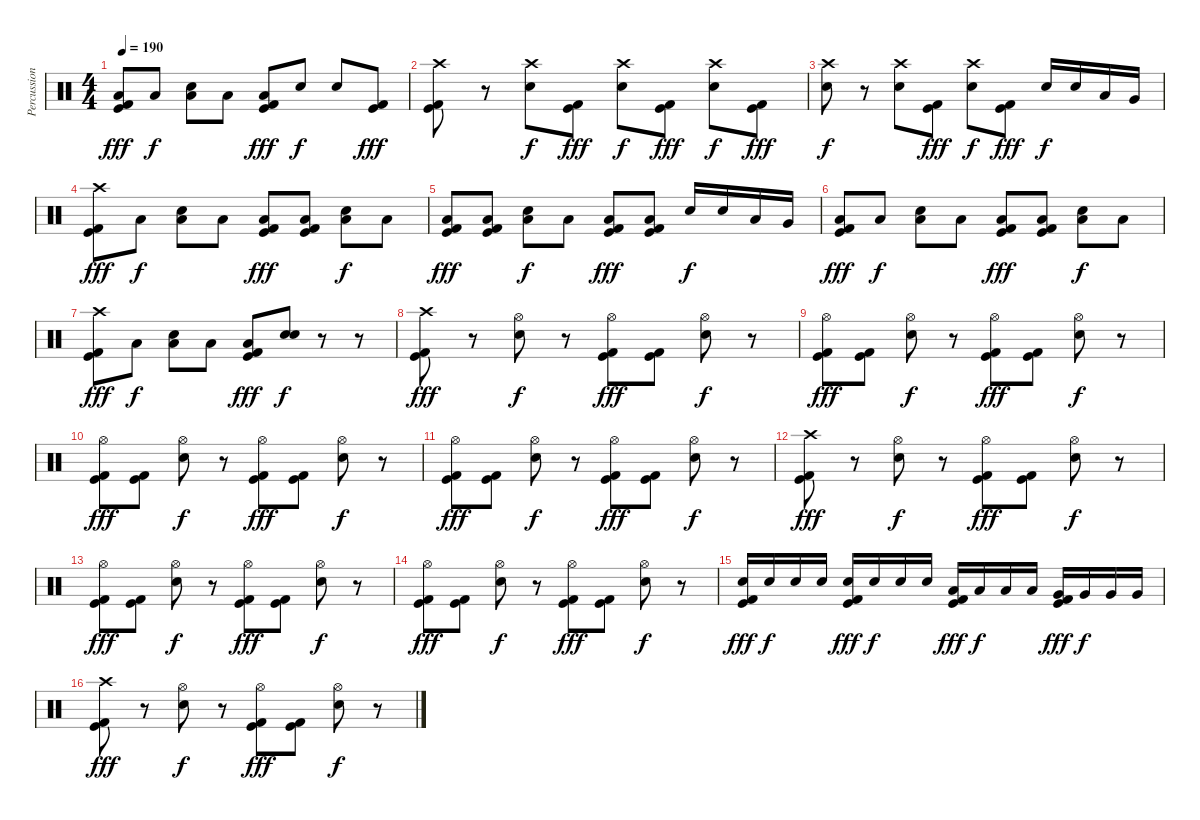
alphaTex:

\track ("Percussion" "Percussion") {instrument percussion}
\staff {score}
\articulation defaults
\ts (4 4)
\tempo 190
\clef neutral
\ks c
("Low Floor Tom (hit)" "Kick (hit)" "Kick (hit) 2").8{dy fff} "Low Floor Tom (hit)".8{dy f} ("Low Floor Tom (hit)" "Electric Snare (hit)").8 "Low Floor Tom (hit)".8 ("Low Floor Tom (hit)" "Kick (hit)" "Kick (hit) 2").8{dy fff} "Electric Snare (hit)".8{dy f} "Electric Snare (hit)".8 ("Kick (hit)" "Kick (hit) 2").8{dy fff} |
("Crash high (hit)" "Kick (hit)" "Kick (hit) 2").8 r.8 ("Crash high (hit)" "Electric Snare (hit)").8{dy f} ("Kick (hit)" "Kick (hit) 2").8{dy fff} ("Crash high (hit)" "Electric Snare (hit)").8{dy f} ("Kick (hit)" "Kick (hit) 2").8{dy fff} ("Crash high (hit)" "Electric Snare (hit)").8{dy f} ("Kick (hit)" "Kick (hit) 2").8{dy fff} |
("Crash high (hit)" "Electric Snare (hit)").8{dy f} r.8 ("Crash high (hit)" "Electric Snare (hit)").8 ("Kick (hit)" "Kick (hit) 2").8{dy fff} ("Crash high (hit)" "Electric Snare (hit)").8{dy f} ("Kick (hit)" "Kick (hit) 2").8{dy fff} "Electric Snare (hit)".16{dy f} "Electric Snare (hit)".16 "Low Tom (hit)".16 "Very Low Tom (hit)".16 |
("Crash high (hit)" "Kick (hit)" "Kick (hit) 2").8{dy fff} "Low Floor Tom (hit)".8{dy f} ("Low Floor Tom (hit)" "Electric Snare (hit)").8 "Low Floor Tom (hit)".8 ("Low Floor Tom (hit)" "Kick (hit)" "Kick (hit) 2").8{dy fff} ("Low Floor Tom (hit)" "Kick (hit)" "Kick (hit) 2").8 ("Low Floor Tom (hit)" "Electric Snare (hit)").8{dy f} "Low Floor Tom (hit)".8 |
("Low Floor Tom (hit)" "Kick (hit)" "Kick (hit) 2").8{dy fff} ("Low Floor Tom (hit)" "Kick (hit)" "Kick (hit) 2").8 ("Low Floor Tom (hit)" "Electric Snare (hit)").8{dy f} "Low Floor Tom (hit)".8 ("Low Floor Tom (hit)" "Kick (hit)" "Kick (hit) 2").8{dy fff} ("Low Floor Tom (hit)" "Kick (hit)" "Kick (hit) 2").8 "Electric Snare (hit)".16{dy f} "Electric Snare (hit)".16 "Low Tom (hit)".16 "Very Low Tom (hit)".16 |
("Low Floor Tom (hit)" "Kick (hit)" "Kick (hit) 2").8{dy fff} "Low Floor Tom (hit)".8{dy f} ("Low Floor Tom (hit)" "Electric Snare (hit)").8 "Low Floor Tom (hit)".8 ("Low Floor Tom (hit)" "Kick (hit)" "Kick (hit) 2").8{dy fff} ("Low Floor Tom (hit)" "Kick (hit)" "Kick (hit) 2").8 ("Low Floor Tom (hit)" "Electric Snare (hit)").8{dy f} "Low Floor Tom (hit)".8 |
("Crash high (hit)" "Kick (hit)" "Kick (hit) 2").8{dy fff} "Low Floor Tom (hit)".8{dy f} ("Low Floor Tom (hit)" "Electric Snare (hit)").8 "Low Floor Tom (hit)".8 ("Low Floor Tom (hit)" "Kick (hit)" "Kick (hit) 2").8{dy fff} ("Electric Snare (hit)" "Electric Snare (hit)").8{bu 60 dy f} r.8 r.8 |
("Crash high (hit)" "Kick (hit)" "Kick (hit) 2").8{dy fff} r.8 ("Hi-Hat (open)" "Electric Snare (hit)").8{dy f} r.8 ("Hi-Hat (open)" "Kick (hit)" "Kick (hit) 2").8{dy fff} ("Kick (hit)" "Kick (hit) 2").8 ("Hi-Hat (open)" "Electric Snare (hit)").8{dy f} r.8 |
("Hi-Hat (open)" "Kick (hit)" "Kick (hit) 2").8{dy fff} ("Kick (hit)" "Kick (hit) 2").8 ("Hi-Hat (open)" "Electric Snare (hit)").8{dy f} r.8 ("Hi-Hat (open)" "Kick (hit)" "Kick (hit) 2").8{dy fff} ("Kick (hit)" "Kick (hit) 2").8 ("Hi-Hat (open)" "Electric Snare (hit)").8{dy f} r.8 |
("Hi-Hat (open)" "Kick (hit)" "Kick (hit) 2").8{dy fff} ("Kick (hit)" "Kick (hit) 2").8 ("Hi-Hat (open)" "Electric Snare (hit)").8{dy f} r.8 ("Hi-Hat (open)" "Kick (hit)" "Kick (hit) 2").8{dy fff} ("Kick (hit)" "Kick (hit) 2").8 ("Hi-Hat (open)" "Electric Snare (hit)").8{dy f} r.8 |
("Hi-Hat (open)" "Kick (hit)" "Kick (hit) 2").8{dy fff} ("Kick (hit)" "Kick (hit) 2").8 ("Hi-Hat (open)" "Electric Snare (hit)").8{dy f} r.8 ("Hi-Hat (open)" "Kick (hit)" "Kick (hit) 2").8{dy fff} ("Kick (hit)" "Kick (hit) 2").8 ("Hi-Hat (open)" "Electric Snare (hit)").8{dy f} r.8 |
("Crash high (hit)" "Kick (hit)" "Kick (hit) 2").8{dy fff} r.8 ("Hi-Hat (open)" "Electric Snare (hit)").8{dy f} r.8 ("Hi-Hat (open)" "Kick (hit)" "Kick (hit) 2").8{dy fff} ("Kick (hit)" "Kick (hit) 2").8 ("Hi-Hat (open)" "Electric Snare (hit)").8{dy f} r.8 |
("Hi-Hat (open)" "Kick (hit)" "Kick (hit) 2").8{dy fff} ("Kick (hit)" "Kick (hit) 2").8 ("Hi-Hat (open)" "Electric Snare (hit)").8{dy f} r.8 ("Hi-Hat (open)" "Kick (hit)" "Kick (hit) 2").8{dy fff} ("Kick (hit)" "Kick (hit) 2").8 ("Hi-Hat (open)" "Electric Snare (hit)").8{dy f} r.8 |
("Hi-Hat (open)" "Kick (hit)" "Kick (hit) 2").8{dy fff} ("Kick (hit)" "Kick (hit) 2").8 ("Hi-Hat (open)" "Electric Snare (hit)").8{dy f} r.8 ("Hi-Hat (open)" "Kick (hit)" "Kick (hit) 2").8{dy fff} ("Kick (hit)" "Kick (hit) 2").8 ("Hi-Hat (open)" "Electric Snare (hit)").8{dy f} r.8 |
("Electric Snare (hit)" "Kick (hit)" "Kick (hit) 2").16{dy fff} "Electric Snare (hit)".16{dy f} "Electric Snare (hit)".16 "Electric Snare (hit)".16 ("Electric Snare (hit)" "Kick (hit)" "Kick (hit) 2").16{dy fff} "Electric Snare (hit)".16{dy f} "Electric Snare (hit)".16 "Electric Snare (hit)".16 ("Low Tom (hit)" "Kick (hit)" "Kick (hit) 2").16{dy fff} "Low Tom (hit)".16{dy f} "Low Tom (hit)".16 "Low Tom (hit)".16 ("Very Low Tom (hit)" "Kick (hit)" "Kick (hit) 2").16{dy fff} "Very Low Tom (hit)".16{dy f} "Very Low Tom (hit)".16 "Very Low Tom (hit)".16 |
("Crash high (hit)" "Kick (hit)" "Kick (hit) 2").8{dy fff} r.8 ("Hi-Hat (open)" "Electric Snare (hit)").8{dy f} r.8 ("Hi-Hat (open)" "Kick (hit)" "Kick (hit) 2").8{dy fff} ("Kick (hit)" "Kick (hit) 2").8 ("Hi-Hat (open)" "Electric Snare (hit)").8{dy f} r.8
